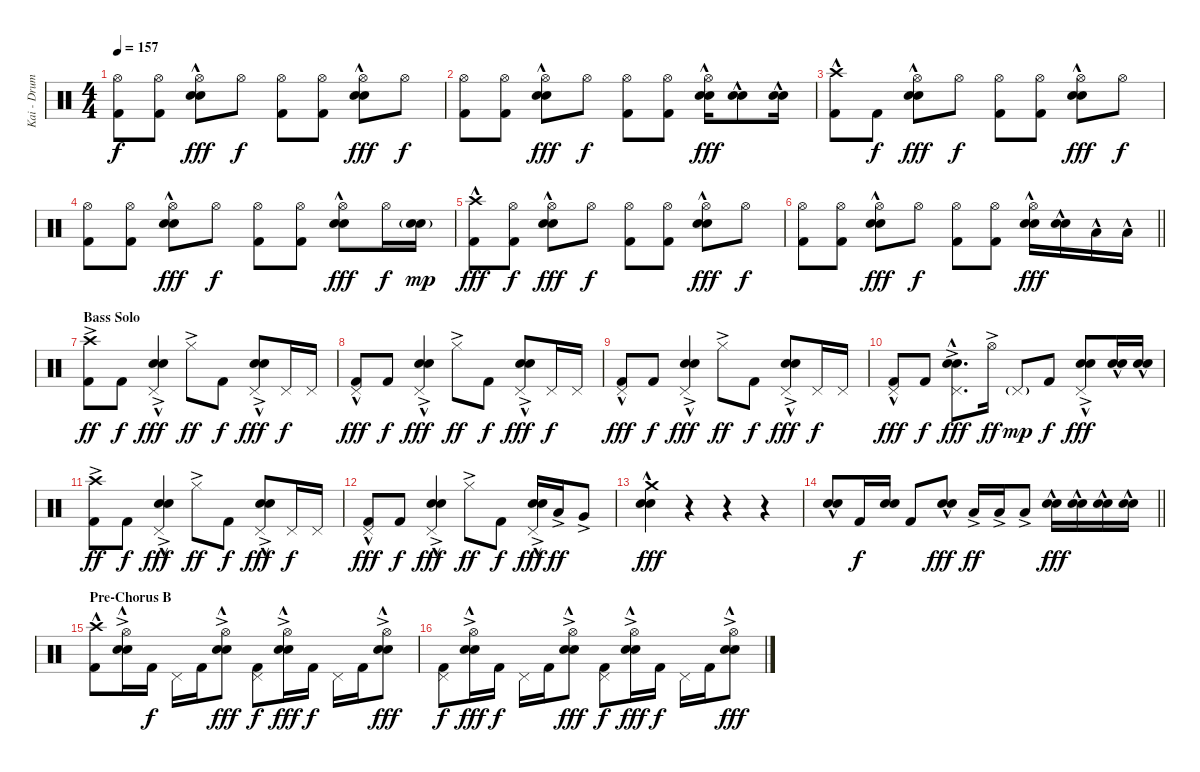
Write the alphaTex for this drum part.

\track ("Kai - Drums" "Kai - Drum") {instrument percussion}
\staff {score}
\articulation defaults
\ts (4 4)
\tempo 157
\clef neutral
\ks c
("Hi-Hat (open)" "Kick (hit) 2").8{dy f} ("Hi-Hat (open)" "Kick (hit) 2").8 ("Hi-Hat (open)" "Electric Snare (hit)"{hac} "Snare (hit) 2").8{dy fff} "Hi-Hat (open)".8{dy f} ("Hi-Hat (open)" "Kick (hit) 2").8 ("Hi-Hat (open)" "Kick (hit) 2").8 ("Hi-Hat (open)" "Electric Snare (hit)"{hac} "Snare (hit) 2").8{dy fff} "Hi-Hat (open)".8{dy f} |
("Hi-Hat (open)" "Kick (hit) 2").8 ("Hi-Hat (open)" "Kick (hit) 2").8 ("Hi-Hat (open)" "Electric Snare (hit)"{hac} "Snare (hit) 2").8{dy fff} "Hi-Hat (open)".8{dy f} ("Hi-Hat (open)" "Kick (hit) 2").8 ("Hi-Hat (open)" "Kick (hit) 2").8 ("Hi-Hat (open)" "Electric Snare (hit)"{hac} "Snare (hit) 2").16{dy fff} ("Electric Snare (hit)"{hac} "Snare (hit) 2").8 ("Electric Snare (hit)"{hac} "Snare (hit) 2").16 |
("Crash high (hit)"{hac} "Kick (hit) 2").8 "Kick (hit) 2".8{dy f} ("Hi-Hat (open)" "Electric Snare (hit)"{hac} "Snare (hit) 2").8{dy fff} "Hi-Hat (open)".8{dy f} ("Hi-Hat (open)" "Kick (hit) 2").8 ("Hi-Hat (open)" "Kick (hit) 2").8 ("Hi-Hat (open)" "Electric Snare (hit)"{hac} "Snare (hit) 2").8{dy fff} "Hi-Hat (open)".8{dy f} |
("Hi-Hat (open)" "Kick (hit) 2").8 ("Hi-Hat (open)" "Kick (hit) 2").8 ("Hi-Hat (open)" "Electric Snare (hit)"{hac} "Snare (hit) 2").8{dy fff} "Hi-Hat (open)".8{dy f} ("Hi-Hat (open)" "Kick (hit) 2").8 ("Hi-Hat (open)" "Kick (hit) 2").8 ("Hi-Hat (open)" "Electric Snare (hit)"{hac} "Snare (hit) 2").8{dy fff} "Hi-Hat (open)".16{dy f} ("Electric Snare (hit)"{g} "Snare (hit) 2"{g}).16{dy mp} |
("Crash high (hit)"{hac} "Kick (hit) 2").8{dy fff} ("Hi-Hat (open)" "Kick (hit) 2").8{dy f} ("Hi-Hat (open)" "Electric Snare (hit)"{hac} "Snare (hit) 2").8{dy fff} "Hi-Hat (open)".8{dy f} ("Hi-Hat (open)" "Kick (hit) 2").8 ("Hi-Hat (open)" "Kick (hit) 2").8 ("Hi-Hat (open)" "Electric Snare (hit)"{hac} "Snare (hit) 2").8{dy fff} "Hi-Hat (open)".8{dy f} |
\barLineRight lightlight
("Hi-Hat (open)" "Kick (hit) 2").8 ("Hi-Hat (open)" "Kick (hit) 2").8 ("Hi-Hat (open)" "Electric Snare (hit)"{hac} "Snare (hit) 2").8{dy fff} "Hi-Hat (open)".8{dy f} ("Hi-Hat (open)" "Kick (hit) 2").8 ("Hi-Hat (open)" "Kick (hit) 2").8 ("Hi-Hat (open)" "Electric Snare (hit)"{hac} "Snare (hit) 2").16{dy fff} ("Electric Snare (hit)"{hac} "Snare (hit) 2").16 "Low Tom (hit)"{hac}.16 "Low Tom (hit)"{hac}.16 |
\section ("" "Bass Solo")
("Crash high (hit)"{ac} "Kick (hit) 2").8{dy ff} "Kick (hit) 2".8{dy f} ("Pedal Hi-Hat (hit)"{ac} "Electric Snare (hit)"{hac} "Snare (hit) 2").4{dy fff} "Hi-Hat (closed)"{ac}.8{dy ff} "Kick (hit) 2".8{dy f} ("Pedal Hi-Hat (hit)"{ac} "Electric Snare (hit)"{hac} "Snare (hit) 2").8{dy fff} "Pedal Hi-Hat (hit)".16{dy f} "Pedal Hi-Hat (hit)".16 |
("Pedal Hi-Hat (hit)"{hac} "Kick (hit) 2").8{dy fff} "Kick (hit) 2".8{dy f} ("Pedal Hi-Hat (hit)"{ac} "Electric Snare (hit)"{hac} "Snare (hit) 2").4{dy fff} "Hi-Hat (closed)"{ac}.8{dy ff} "Kick (hit) 2".8{dy f} ("Pedal Hi-Hat (hit)"{ac} "Electric Snare (hit)"{hac} "Snare (hit) 2").8{dy fff} "Pedal Hi-Hat (hit)".16{dy f} "Pedal Hi-Hat (hit)".16 |
("Pedal Hi-Hat (hit)"{hac} "Kick (hit) 2").8{dy fff} "Kick (hit) 2".8{dy f} ("Pedal Hi-Hat (hit)"{ac} "Electric Snare (hit)"{hac} "Snare (hit) 2").4{dy fff} "Hi-Hat (closed)"{ac}.8{dy ff} "Kick (hit) 2".8{dy f} ("Pedal Hi-Hat (hit)"{ac} "Electric Snare (hit)"{hac} "Snare (hit) 2").8{dy fff} "Pedal Hi-Hat (hit)".16{dy f} "Pedal Hi-Hat (hit)".16 |
("Pedal Hi-Hat (hit)"{hac} "Kick (hit) 2").8{dy fff} "Kick (hit) 2".8{dy f} ("Pedal Hi-Hat (hit)"{ac} "Electric Snare (hit)"{hac} "Snare (hit) 2").8{d dy fff} "Hi-Hat (open)"{ac}.16{dy ff} "Pedal Hi-Hat (hit)"{g}.8{dy mp} "Kick (hit) 2".8{dy f} ("Pedal Hi-Hat (hit)"{ac} "Electric Snare (hit)"{hac} "Snare (hit) 2").8{dy fff} ("Electric Snare (hit)"{hac} "Snare (hit) 2").16 ("Electric Snare (hit)"{hac} "Snare (hit) 2").16 |
("Crash high (hit)"{ac} "Kick (hit) 2").8{dy ff} "Kick (hit) 2".8{dy f} ("Pedal Hi-Hat (hit)"{ac} "Electric Snare (hit)"{hac} "Snare (hit) 2").4{dy fff} "Hi-Hat (closed)"{ac}.8{dy ff} "Kick (hit) 2".8{dy f} ("Pedal Hi-Hat (hit)"{ac} "Electric Snare (hit)"{hac} "Snare (hit) 2").8{dy fff} "Pedal Hi-Hat (hit)".16{dy f} "Pedal Hi-Hat (hit)".16 |
("Pedal Hi-Hat (hit)"{hac} "Kick (hit) 2").8{dy fff} "Kick (hit) 2".8{dy f} ("Pedal Hi-Hat (hit)"{ac} "Electric Snare (hit)"{hac} "Snare (hit) 2").4{dy fff} "Hi-Hat (closed)"{ac}.8{dy ff} "Kick (hit) 2".8{dy f} ("Pedal Hi-Hat (hit)"{ac} "Electric Snare (hit)"{hac} "Snare (hit) 2").16{dy fff} "Low Tom (hit)"{ac}.16{dy ff} "Very Low Tom (hit)"{ac}.8 |
("Crash medium (hit)" "Electric Snare (hit)"{hac} "Snare (hit) 2").4{dy fff} r.4 r.4 r.4 |
\barLineRight lightlight
("Electric Snare (hit)"{hac} "Snare (hit) 2").8 "Kick (hit) 2".16{dy f} ("Electric Snare (hit)" "Snare (hit) 2").16 "Kick (hit) 2".8 ("Electric Snare (hit)"{hac} "Snare (hit) 2").8{dy fff} "Low Tom (hit)"{ac}.16{dy ff} "Low Tom (hit)"{ac}.16 "Low Tom (hit)"{ac}.8 ("Electric Snare (hit)"{hac} "Snare (hit) 2").16{dy fff} ("Electric Snare (hit)"{hac} "Snare (hit) 2").16 ("Electric Snare (hit)"{hac} "Snare (hit) 2").16 ("Electric Snare (hit)"{hac} "Snare (hit) 2").16 |
\section ("" "Pre-Chorus B")
("Crash high (hit)"{hac} "Kick (hit) 2").8 ("Hi-Hat (open)"{ac} "Electric Snare (hit)"{hac} "Snare (hit) 2").16 "Kick (hit) 2".16{dy f} "Pedal Hi-Hat (hit)".16 "Kick (hit) 2".16 ("Hi-Hat (open)"{ac} "Electric Snare (hit)"{hac} "Snare (hit) 2").8{dy fff} ("Pedal Hi-Hat (hit)" "Kick (hit) 2").8{dy f} ("Hi-Hat (open)"{ac} "Electric Snare (hit)"{hac} "Snare (hit) 2").16{dy fff} "Kick (hit) 2".16{dy f} "Pedal Hi-Hat (hit)".16 "Kick (hit) 2".16 ("Hi-Hat (open)"{ac} "Electric Snare (hit)"{hac} "Snare (hit) 2").8{dy fff} |
("Pedal Hi-Hat (hit)" "Kick (hit) 2").8{dy f} ("Hi-Hat (open)"{ac} "Electric Snare (hit)"{hac} "Snare (hit) 2").16{dy fff} "Kick (hit) 2".16{dy f} "Pedal Hi-Hat (hit)".16 "Kick (hit) 2".16 ("Hi-Hat (open)"{ac} "Electric Snare (hit)"{hac} "Snare (hit) 2").8{dy fff} ("Pedal Hi-Hat (hit)" "Kick (hit) 2").8{dy f} ("Hi-Hat (open)"{ac} "Electric Snare (hit)"{hac} "Snare (hit) 2").16{dy fff} "Kick (hit) 2".16{dy f} "Pedal Hi-Hat (hit)".16 "Kick (hit) 2".16 ("Hi-Hat (open)"{ac} "Electric Snare (hit)"{hac} "Snare (hit) 2").8{dy fff}
